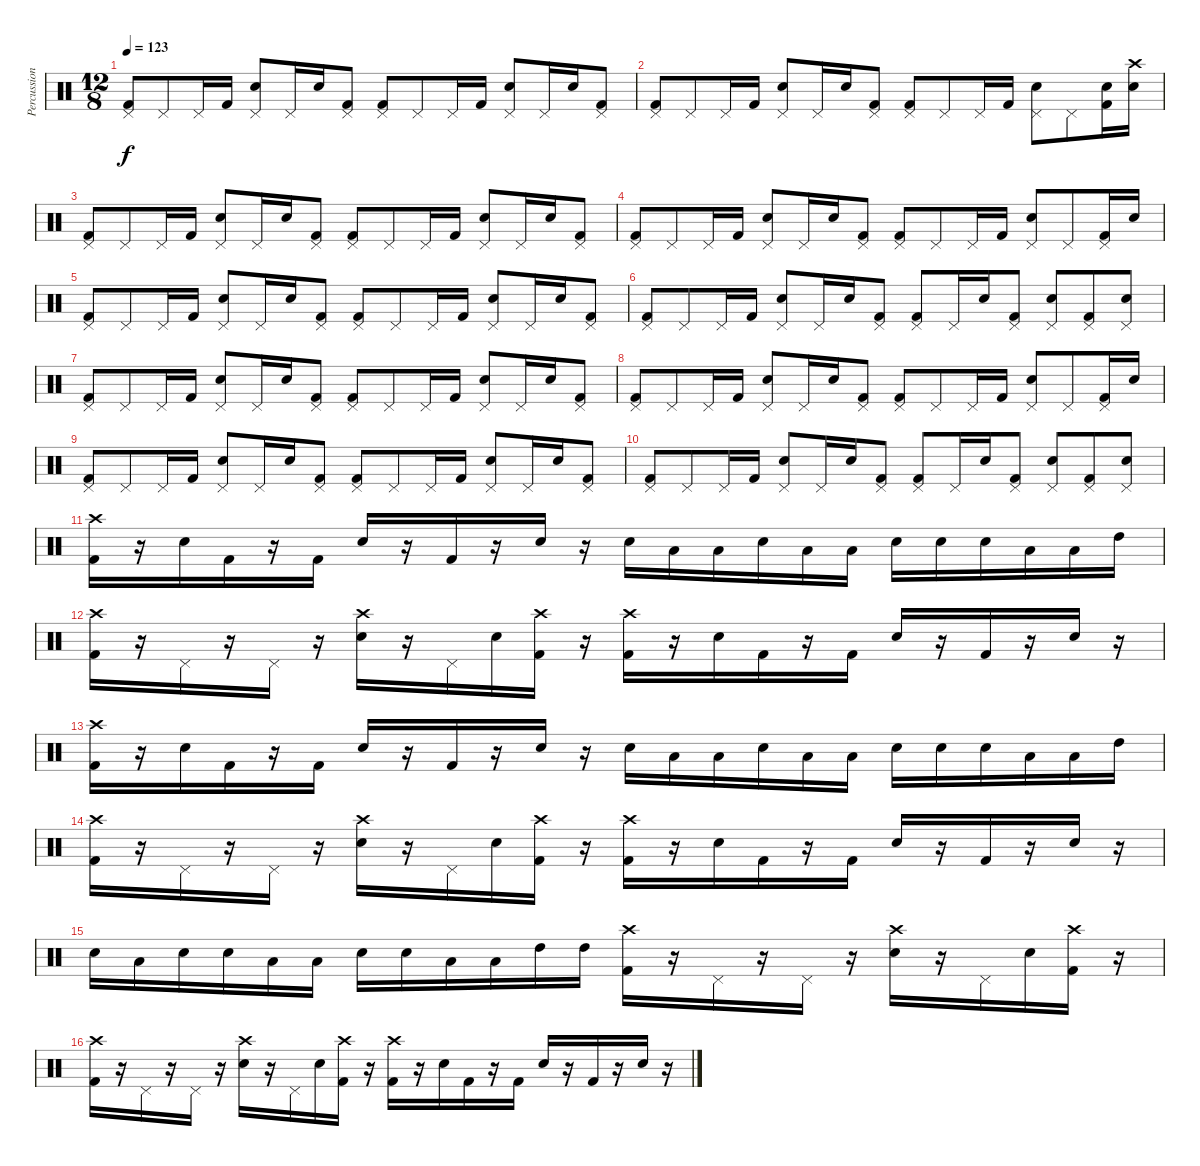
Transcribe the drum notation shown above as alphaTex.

\track ("Percussion" "Percussion") {instrument percussion}
\staff {score}
\articulation defaults
\ts (12 8)
\tempo 123
\clef neutral
\ks c
("Pedal Hi-Hat (hit)" "Kick (hit) 2").8{dy f} "Pedal Hi-Hat (hit)".8 "Pedal Hi-Hat (hit)".16 "Kick (hit) 2".16 ("Snare (hit) 2" "Pedal Hi-Hat (hit)").8 "Pedal Hi-Hat (hit)".16 "Snare (hit) 2".16 ("Pedal Hi-Hat (hit)" "Kick (hit) 2").8 ("Pedal Hi-Hat (hit)" "Kick (hit) 2").8 "Pedal Hi-Hat (hit)".8 "Pedal Hi-Hat (hit)".16 "Kick (hit) 2".16 ("Snare (hit) 2" "Pedal Hi-Hat (hit)").8 "Pedal Hi-Hat (hit)".16 "Snare (hit) 2".16 ("Pedal Hi-Hat (hit)" "Kick (hit) 2").8 |
("Pedal Hi-Hat (hit)" "Kick (hit) 2").8 "Pedal Hi-Hat (hit)".8 "Pedal Hi-Hat (hit)".16 "Kick (hit) 2".16 ("Snare (hit) 2" "Pedal Hi-Hat (hit)").8 "Pedal Hi-Hat (hit)".16 "Snare (hit) 2".16 ("Pedal Hi-Hat (hit)" "Kick (hit) 2").8 ("Pedal Hi-Hat (hit)" "Kick (hit) 2").8 "Pedal Hi-Hat (hit)".8 "Pedal Hi-Hat (hit)".16 "Kick (hit) 2".16 ("Snare (hit) 2" "Pedal Hi-Hat (hit)").8 "Pedal Hi-Hat (hit)".8 ("Snare (hit) 2" "Kick (hit) 2").16 ("Snare (hit) 2" "Crash high (hit)").16 |
("Pedal Hi-Hat (hit)" "Kick (hit) 2").8 "Pedal Hi-Hat (hit)".8 "Pedal Hi-Hat (hit)".16 "Kick (hit) 2".16 ("Snare (hit) 2" "Pedal Hi-Hat (hit)").8 "Pedal Hi-Hat (hit)".16 "Snare (hit) 2".16 ("Pedal Hi-Hat (hit)" "Kick (hit) 2").8 ("Pedal Hi-Hat (hit)" "Kick (hit) 2").8 "Pedal Hi-Hat (hit)".8 "Pedal Hi-Hat (hit)".16 "Kick (hit) 2".16 ("Snare (hit) 2" "Pedal Hi-Hat (hit)").8 "Pedal Hi-Hat (hit)".16 "Snare (hit) 2".16 ("Pedal Hi-Hat (hit)" "Kick (hit) 2").8 |
("Pedal Hi-Hat (hit)" "Kick (hit) 2").8 "Pedal Hi-Hat (hit)".8 "Pedal Hi-Hat (hit)".16 "Kick (hit) 2".16 ("Snare (hit) 2" "Pedal Hi-Hat (hit)").8 "Pedal Hi-Hat (hit)".16 "Snare (hit) 2".16 ("Pedal Hi-Hat (hit)" "Kick (hit) 2").8 ("Pedal Hi-Hat (hit)" "Kick (hit) 2").8 "Pedal Hi-Hat (hit)".8 "Pedal Hi-Hat (hit)".16 "Kick (hit) 2".16 ("Snare (hit) 2" "Pedal Hi-Hat (hit)").8 "Pedal Hi-Hat (hit)".8 ("Pedal Hi-Hat (hit)" "Kick (hit) 2").16 "Snare (hit) 2".16 |
("Pedal Hi-Hat (hit)" "Kick (hit) 2").8 "Pedal Hi-Hat (hit)".8 "Pedal Hi-Hat (hit)".16 "Kick (hit) 2".16 ("Snare (hit) 2" "Pedal Hi-Hat (hit)").8 "Pedal Hi-Hat (hit)".16 "Snare (hit) 2".16 ("Pedal Hi-Hat (hit)" "Kick (hit) 2").8 ("Pedal Hi-Hat (hit)" "Kick (hit) 2").8 "Pedal Hi-Hat (hit)".8 "Pedal Hi-Hat (hit)".16 "Kick (hit) 2".16 ("Snare (hit) 2" "Pedal Hi-Hat (hit)").8 "Pedal Hi-Hat (hit)".16 "Snare (hit) 2".16 ("Pedal Hi-Hat (hit)" "Kick (hit) 2").8 |
("Pedal Hi-Hat (hit)" "Kick (hit) 2").8 "Pedal Hi-Hat (hit)".8 "Pedal Hi-Hat (hit)".16 "Kick (hit) 2".16 ("Snare (hit) 2" "Pedal Hi-Hat (hit)").8 "Pedal Hi-Hat (hit)".16 "Snare (hit) 2".16 ("Pedal Hi-Hat (hit)" "Kick (hit) 2").8 ("Pedal Hi-Hat (hit)" "Kick (hit) 2").8 "Pedal Hi-Hat (hit)".16 "Snare (hit) 2".16 ("Pedal Hi-Hat (hit)" "Kick (hit) 2").8 ("Snare (hit) 2" "Pedal Hi-Hat (hit)").8 ("Pedal Hi-Hat (hit)" "Kick (hit) 2").8 ("Snare (hit) 2" "Pedal Hi-Hat (hit)").8 |
("Pedal Hi-Hat (hit)" "Kick (hit) 2").8 "Pedal Hi-Hat (hit)".8 "Pedal Hi-Hat (hit)".16 "Kick (hit) 2".16 ("Snare (hit) 2" "Pedal Hi-Hat (hit)").8 "Pedal Hi-Hat (hit)".16 "Snare (hit) 2".16 ("Pedal Hi-Hat (hit)" "Kick (hit) 2").8 ("Pedal Hi-Hat (hit)" "Kick (hit) 2").8 "Pedal Hi-Hat (hit)".8 "Pedal Hi-Hat (hit)".16 "Kick (hit) 2".16 ("Snare (hit) 2" "Pedal Hi-Hat (hit)").8 "Pedal Hi-Hat (hit)".16 "Snare (hit) 2".16 ("Pedal Hi-Hat (hit)" "Kick (hit) 2").8 |
("Pedal Hi-Hat (hit)" "Kick (hit) 2").8 "Pedal Hi-Hat (hit)".8 "Pedal Hi-Hat (hit)".16 "Kick (hit) 2".16 ("Snare (hit) 2" "Pedal Hi-Hat (hit)").8 "Pedal Hi-Hat (hit)".16 "Snare (hit) 2".16 ("Pedal Hi-Hat (hit)" "Kick (hit) 2").8 ("Pedal Hi-Hat (hit)" "Kick (hit) 2").8 "Pedal Hi-Hat (hit)".8 "Pedal Hi-Hat (hit)".16 "Kick (hit) 2".16 ("Snare (hit) 2" "Pedal Hi-Hat (hit)").8 "Pedal Hi-Hat (hit)".8 ("Pedal Hi-Hat (hit)" "Kick (hit) 2").16 "Snare (hit) 2".16 |
("Pedal Hi-Hat (hit)" "Kick (hit) 2").8 "Pedal Hi-Hat (hit)".8 "Pedal Hi-Hat (hit)".16 "Kick (hit) 2".16 ("Snare (hit) 2" "Pedal Hi-Hat (hit)").8 "Pedal Hi-Hat (hit)".16 "Snare (hit) 2".16 ("Pedal Hi-Hat (hit)" "Kick (hit) 2").8 ("Pedal Hi-Hat (hit)" "Kick (hit) 2").8 "Pedal Hi-Hat (hit)".8 "Pedal Hi-Hat (hit)".16 "Kick (hit) 2".16 ("Snare (hit) 2" "Pedal Hi-Hat (hit)").8 "Pedal Hi-Hat (hit)".16 "Snare (hit) 2".16 ("Pedal Hi-Hat (hit)" "Kick (hit) 2").8 |
("Pedal Hi-Hat (hit)" "Kick (hit) 2").8 "Pedal Hi-Hat (hit)".8 "Pedal Hi-Hat (hit)".16 "Kick (hit) 2".16 ("Snare (hit) 2" "Pedal Hi-Hat (hit)").8 "Pedal Hi-Hat (hit)".16 "Snare (hit) 2".16 ("Pedal Hi-Hat (hit)" "Kick (hit) 2").8 ("Pedal Hi-Hat (hit)" "Kick (hit) 2").8 "Pedal Hi-Hat (hit)".16 "Snare (hit) 2".16 ("Pedal Hi-Hat (hit)" "Kick (hit) 2").8 ("Snare (hit) 2" "Pedal Hi-Hat (hit)").8 ("Pedal Hi-Hat (hit)" "Kick (hit) 2").8 ("Snare (hit) 2" "Pedal Hi-Hat (hit)").8 |
("Crash high (hit)" "Kick (hit) 2").16 r.16 "Snare (hit) 2".16 "Kick (hit) 2".16 r.16 "Kick (hit) 2".16 "Snare (hit) 2".16 r.16 "Kick (hit) 2".16 r.16 "Snare (hit) 2".16 r.16 "Snare (hit) 2".16 "Low Tom (hit)".16 "Low Tom (hit)".16 "Snare (hit) 2".16 "Low Tom (hit)".16 "Low Tom (hit)".16 "Snare (hit) 2".16 "Snare (hit) 2".16 "Snare (hit) 2".16 "Low Tom (hit)".16 "Low Tom (hit)".16 "High Tom (hit)".16 |
("Crash high (hit)" "Kick (hit) 2").16 r.16 "Pedal Hi-Hat (hit)".16 r.16 "Pedal Hi-Hat (hit)".16 r.16 ("Snare (hit) 2" "Crash high (hit)").16 r.16 "Pedal Hi-Hat (hit)".16 "Snare (hit) 2".16 ("Crash high (hit)" "Kick (hit) 2").16 r.16 ("Crash high (hit)" "Kick (hit) 2").16 r.16 "Snare (hit) 2".16 "Kick (hit) 2".16 r.16 "Kick (hit) 2".16 "Snare (hit) 2".16 r.16 "Kick (hit) 2".16 r.16 "Snare (hit) 2".16 r.16 |
("Crash high (hit)" "Kick (hit) 2").16 r.16 "Snare (hit) 2".16 "Kick (hit) 2".16 r.16 "Kick (hit) 2".16 "Snare (hit) 2".16 r.16 "Kick (hit) 2".16 r.16 "Snare (hit) 2".16 r.16 "Snare (hit) 2".16 "Low Tom (hit)".16 "Low Tom (hit)".16 "Snare (hit) 2".16 "Low Tom (hit)".16 "Low Tom (hit)".16 "Snare (hit) 2".16 "Snare (hit) 2".16 "Snare (hit) 2".16 "Low Tom (hit)".16 "Low Tom (hit)".16 "High Tom (hit)".16 |
("Crash high (hit)" "Kick (hit) 2").16 r.16 "Pedal Hi-Hat (hit)".16 r.16 "Pedal Hi-Hat (hit)".16 r.16 ("Snare (hit) 2" "Crash high (hit)").16 r.16 "Pedal Hi-Hat (hit)".16 "Snare (hit) 2".16 ("Crash high (hit)" "Kick (hit) 2").16 r.16 ("Crash high (hit)" "Kick (hit) 2").16 r.16 "Snare (hit) 2".16 "Kick (hit) 2".16 r.16 "Kick (hit) 2".16 "Snare (hit) 2".16 r.16 "Kick (hit) 2".16 r.16 "Snare (hit) 2".16 r.16 |
"Snare (hit) 2".16 "Low Tom (hit)".16 "Snare (hit) 2".16 "Snare (hit) 2".16 "Low Tom (hit)".16 "Low Tom (hit)".16 "Snare (hit) 2".16 "Snare (hit) 2".16 "Low Tom (hit)".16 "Low Tom (hit)".16 "High Tom (hit)".16 "High Tom (hit)".16 ("Crash high (hit)" "Kick (hit) 2").16 r.16 "Pedal Hi-Hat (hit)".16 r.16 "Pedal Hi-Hat (hit)".16 r.16 ("Snare (hit) 2" "Crash high (hit)").16 r.16 "Pedal Hi-Hat (hit)".16 "Snare (hit) 2".16 ("Crash high (hit)" "Kick (hit) 2").16 r.16 |
("Crash high (hit)" "Kick (hit) 2").16 r.16 "Pedal Hi-Hat (hit)".16 r.16 "Pedal Hi-Hat (hit)".16 r.16 ("Snare (hit) 2" "Crash high (hit)").16 r.16 "Pedal Hi-Hat (hit)".16 "Snare (hit) 2".16 ("Crash high (hit)" "Kick (hit) 2").16 r.16 ("Crash high (hit)" "Kick (hit) 2").16 r.16 "Snare (hit) 2".16 "Kick (hit) 2".16 r.16 "Kick (hit) 2".16 "Snare (hit) 2".16 r.16 "Kick (hit) 2".16 r.16 "Snare (hit) 2".16 r.16
